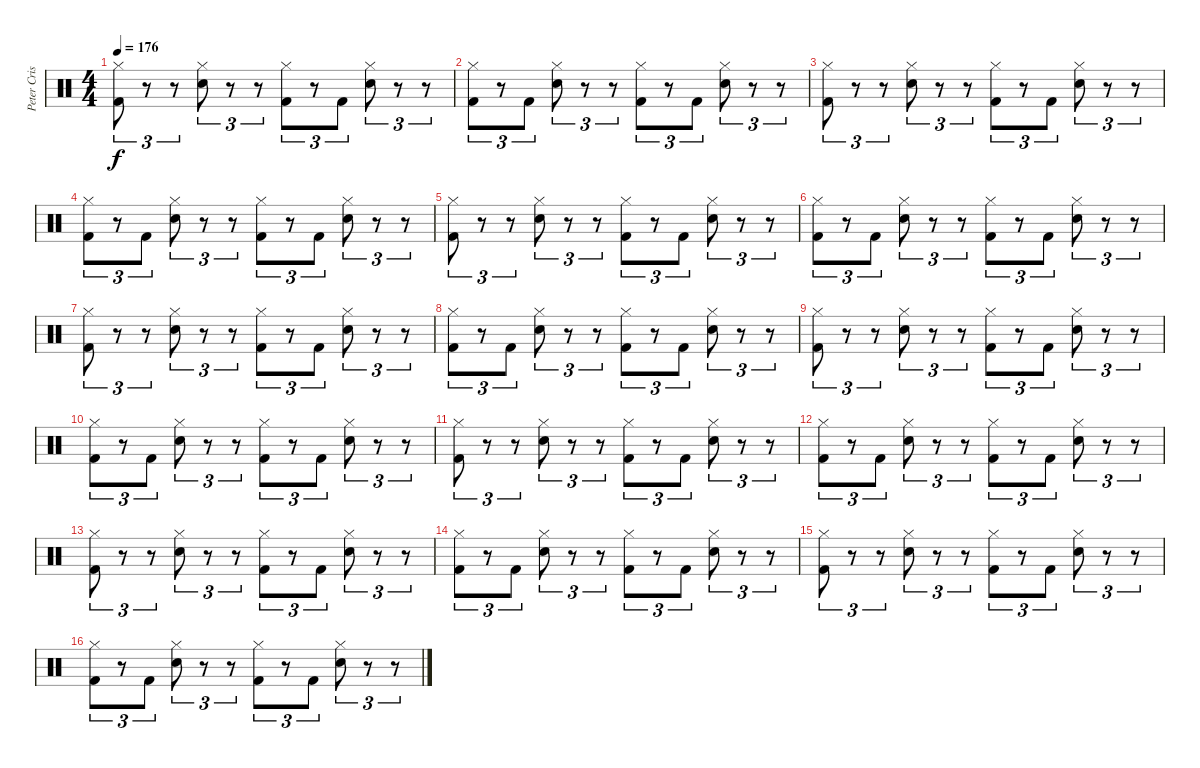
\track ("Peter Criss" "Peter Cris") {instrument percussion}
\staff {score}
\articulation defaults
\ts (4 4)
\tempo 176
\clef neutral
\ks c
("Hi-Hat (closed)" "Kick (hit) 2").8{tu (3 2) dy f} r.8{tu (3 2)} r.8{tu (3 2)} ("Hi-Hat (closed)" "Electric Snare (hit)").8{tu (3 2)} r.8{tu (3 2)} r.8{tu (3 2)} ("Hi-Hat (closed)" "Kick (hit) 2").8{tu (3 2)} r.8{tu (3 2)} "Kick (hit) 2".8{tu (3 2)} ("Hi-Hat (closed)" "Electric Snare (hit)").8{tu (3 2)} r.8{tu (3 2)} r.8{tu (3 2)} |
("Hi-Hat (closed)" "Kick (hit) 2").8{tu (3 2)} r.8{tu (3 2)} "Kick (hit) 2".8{tu (3 2)} ("Hi-Hat (closed)" "Electric Snare (hit)").8{tu (3 2)} r.8{tu (3 2)} r.8{tu (3 2)} ("Hi-Hat (closed)" "Kick (hit) 2").8{tu (3 2)} r.8{tu (3 2)} "Kick (hit) 2".8{tu (3 2)} ("Hi-Hat (closed)" "Electric Snare (hit)").8{tu (3 2)} r.8{tu (3 2)} r.8{tu (3 2)} |
("Hi-Hat (closed)" "Kick (hit) 2").8{tu (3 2)} r.8{tu (3 2)} r.8{tu (3 2)} ("Hi-Hat (closed)" "Electric Snare (hit)").8{tu (3 2)} r.8{tu (3 2)} r.8{tu (3 2)} ("Hi-Hat (closed)" "Kick (hit) 2").8{tu (3 2)} r.8{tu (3 2)} "Kick (hit) 2".8{tu (3 2)} ("Hi-Hat (closed)" "Electric Snare (hit)").8{tu (3 2)} r.8{tu (3 2)} r.8{tu (3 2)} |
("Hi-Hat (closed)" "Kick (hit) 2").8{tu (3 2)} r.8{tu (3 2)} "Kick (hit) 2".8{tu (3 2)} ("Hi-Hat (closed)" "Electric Snare (hit)").8{tu (3 2)} r.8{tu (3 2)} r.8{tu (3 2)} ("Hi-Hat (closed)" "Kick (hit) 2").8{tu (3 2)} r.8{tu (3 2)} "Kick (hit) 2".8{tu (3 2)} ("Hi-Hat (closed)" "Electric Snare (hit)").8{tu (3 2)} r.8{tu (3 2)} r.8{tu (3 2)} |
("Hi-Hat (closed)" "Kick (hit) 2").8{tu (3 2)} r.8{tu (3 2)} r.8{tu (3 2)} ("Hi-Hat (closed)" "Electric Snare (hit)").8{tu (3 2)} r.8{tu (3 2)} r.8{tu (3 2)} ("Hi-Hat (closed)" "Kick (hit) 2").8{tu (3 2)} r.8{tu (3 2)} "Kick (hit) 2".8{tu (3 2)} ("Hi-Hat (closed)" "Electric Snare (hit)").8{tu (3 2)} r.8{tu (3 2)} r.8{tu (3 2)} |
("Hi-Hat (closed)" "Kick (hit) 2").8{tu (3 2)} r.8{tu (3 2)} "Kick (hit) 2".8{tu (3 2)} ("Hi-Hat (closed)" "Electric Snare (hit)").8{tu (3 2)} r.8{tu (3 2)} r.8{tu (3 2)} ("Hi-Hat (closed)" "Kick (hit) 2").8{tu (3 2)} r.8{tu (3 2)} "Kick (hit) 2".8{tu (3 2)} ("Hi-Hat (closed)" "Electric Snare (hit)").8{tu (3 2)} r.8{tu (3 2)} r.8{tu (3 2)} |
("Hi-Hat (closed)" "Kick (hit) 2").8{tu (3 2)} r.8{tu (3 2)} r.8{tu (3 2)} ("Hi-Hat (closed)" "Electric Snare (hit)").8{tu (3 2)} r.8{tu (3 2)} r.8{tu (3 2)} ("Hi-Hat (closed)" "Kick (hit) 2").8{tu (3 2)} r.8{tu (3 2)} "Kick (hit) 2".8{tu (3 2)} ("Hi-Hat (closed)" "Electric Snare (hit)").8{tu (3 2)} r.8{tu (3 2)} r.8{tu (3 2)} |
("Hi-Hat (closed)" "Kick (hit) 2").8{tu (3 2)} r.8{tu (3 2)} "Kick (hit) 2".8{tu (3 2)} ("Hi-Hat (closed)" "Electric Snare (hit)").8{tu (3 2)} r.8{tu (3 2)} r.8{tu (3 2)} ("Hi-Hat (closed)" "Kick (hit) 2").8{tu (3 2)} r.8{tu (3 2)} "Kick (hit) 2".8{tu (3 2)} ("Hi-Hat (closed)" "Electric Snare (hit)").8{tu (3 2)} r.8{tu (3 2)} r.8{tu (3 2)} |
("Hi-Hat (closed)" "Kick (hit) 2").8{tu (3 2)} r.8{tu (3 2)} r.8{tu (3 2)} ("Hi-Hat (closed)" "Electric Snare (hit)").8{tu (3 2)} r.8{tu (3 2)} r.8{tu (3 2)} ("Hi-Hat (closed)" "Kick (hit) 2").8{tu (3 2)} r.8{tu (3 2)} "Kick (hit) 2".8{tu (3 2)} ("Hi-Hat (closed)" "Electric Snare (hit)").8{tu (3 2)} r.8{tu (3 2)} r.8{tu (3 2)} |
("Hi-Hat (closed)" "Kick (hit) 2").8{tu (3 2)} r.8{tu (3 2)} "Kick (hit) 2".8{tu (3 2)} ("Hi-Hat (closed)" "Electric Snare (hit)").8{tu (3 2)} r.8{tu (3 2)} r.8{tu (3 2)} ("Hi-Hat (closed)" "Kick (hit) 2").8{tu (3 2)} r.8{tu (3 2)} "Kick (hit) 2".8{tu (3 2)} ("Hi-Hat (closed)" "Electric Snare (hit)").8{tu (3 2)} r.8{tu (3 2)} r.8{tu (3 2)} |
("Hi-Hat (closed)" "Kick (hit) 2").8{tu (3 2)} r.8{tu (3 2)} r.8{tu (3 2)} ("Hi-Hat (closed)" "Electric Snare (hit)").8{tu (3 2)} r.8{tu (3 2)} r.8{tu (3 2)} ("Hi-Hat (closed)" "Kick (hit) 2").8{tu (3 2)} r.8{tu (3 2)} "Kick (hit) 2".8{tu (3 2)} ("Hi-Hat (closed)" "Electric Snare (hit)").8{tu (3 2)} r.8{tu (3 2)} r.8{tu (3 2)} |
("Hi-Hat (closed)" "Kick (hit) 2").8{tu (3 2)} r.8{tu (3 2)} "Kick (hit) 2".8{tu (3 2)} ("Hi-Hat (closed)" "Electric Snare (hit)").8{tu (3 2)} r.8{tu (3 2)} r.8{tu (3 2)} ("Hi-Hat (closed)" "Kick (hit) 2").8{tu (3 2)} r.8{tu (3 2)} "Kick (hit) 2".8{tu (3 2)} ("Hi-Hat (closed)" "Electric Snare (hit)").8{tu (3 2)} r.8{tu (3 2)} r.8{tu (3 2)} |
("Hi-Hat (closed)" "Kick (hit) 2").8{tu (3 2)} r.8{tu (3 2)} r.8{tu (3 2)} ("Hi-Hat (closed)" "Electric Snare (hit)").8{tu (3 2)} r.8{tu (3 2)} r.8{tu (3 2)} ("Hi-Hat (closed)" "Kick (hit) 2").8{tu (3 2)} r.8{tu (3 2)} "Kick (hit) 2".8{tu (3 2)} ("Hi-Hat (closed)" "Electric Snare (hit)").8{tu (3 2)} r.8{tu (3 2)} r.8{tu (3 2)} |
("Hi-Hat (closed)" "Kick (hit) 2").8{tu (3 2)} r.8{tu (3 2)} "Kick (hit) 2".8{tu (3 2)} ("Hi-Hat (closed)" "Electric Snare (hit)").8{tu (3 2)} r.8{tu (3 2)} r.8{tu (3 2)} ("Hi-Hat (closed)" "Kick (hit) 2").8{tu (3 2)} r.8{tu (3 2)} "Kick (hit) 2".8{tu (3 2)} ("Hi-Hat (closed)" "Electric Snare (hit)").8{tu (3 2)} r.8{tu (3 2)} r.8{tu (3 2)} |
("Hi-Hat (closed)" "Kick (hit) 2").8{tu (3 2)} r.8{tu (3 2)} r.8{tu (3 2)} ("Hi-Hat (closed)" "Electric Snare (hit)").8{tu (3 2)} r.8{tu (3 2)} r.8{tu (3 2)} ("Hi-Hat (closed)" "Kick (hit) 2").8{tu (3 2)} r.8{tu (3 2)} "Kick (hit) 2".8{tu (3 2)} ("Hi-Hat (closed)" "Electric Snare (hit)").8{tu (3 2)} r.8{tu (3 2)} r.8{tu (3 2)} |
("Hi-Hat (closed)" "Kick (hit) 2").8{tu (3 2)} r.8{tu (3 2)} "Kick (hit) 2".8{tu (3 2)} ("Hi-Hat (closed)" "Electric Snare (hit)").8{tu (3 2)} r.8{tu (3 2)} r.8{tu (3 2)} ("Hi-Hat (closed)" "Kick (hit) 2").8{tu (3 2)} r.8{tu (3 2)} "Kick (hit) 2".8{tu (3 2)} ("Hi-Hat (closed)" "Electric Snare (hit)").8{tu (3 2)} r.8{tu (3 2)} r.8{tu (3 2)}
